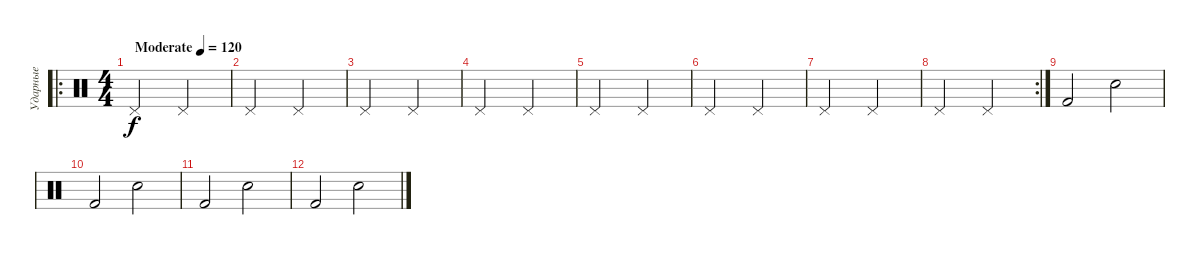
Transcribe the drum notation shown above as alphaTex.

\track ("Ударные" "Ударные") {instrument percussion}
\staff {score}
\articulation defaults
\ro
\ts (4 4)
\tempo (120 "Moderate")
\clef neutral
\ks c "Pedal Hi-Hat (hit)".2{dy f} "Pedal Hi-Hat (hit)".2
|
"Pedal Hi-Hat (hit)".2 "Pedal Hi-Hat (hit)".2 |
"Pedal Hi-Hat (hit)".2 "Pedal Hi-Hat (hit)".2 |
"Pedal Hi-Hat (hit)".2 "Pedal Hi-Hat (hit)".2 |
"Pedal Hi-Hat (hit)".2 "Pedal Hi-Hat (hit)".2 |
"Pedal Hi-Hat (hit)".2 "Pedal Hi-Hat (hit)".2 |
"Pedal Hi-Hat (hit)".2 "Pedal Hi-Hat (hit)".2 |
\rc 2 "Pedal Hi-Hat (hit)".2 "Pedal Hi-Hat (hit)".2
|
"Kick (hit) 2".2 "Electric Snare (hit)".2 |
"Kick (hit) 2".2 "Electric Snare (hit)".2 |
"Kick (hit) 2".2 "Electric Snare (hit)".2 |
"Kick (hit) 2".2 "Electric Snare (hit)".2
